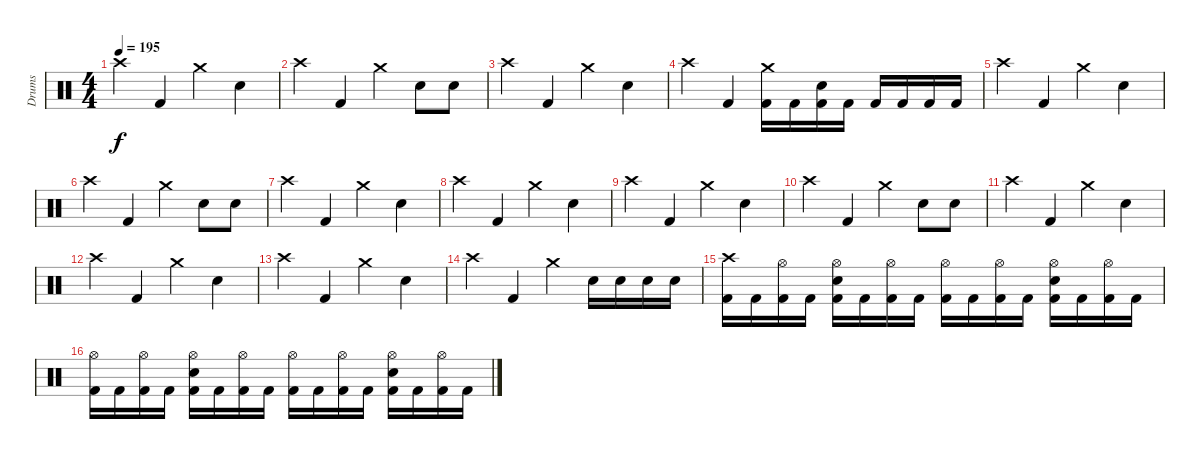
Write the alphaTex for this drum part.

\track ("Drums" "Drums") {instrument percussion}
\staff {score}
\articulation defaults
\ts (4 4)
\tempo 195
\clef neutral
\ks c "Crash high (hit)".4{dy f} "Kick (hit) 2".4 "Crash medium (hit)".4 "Snare (hit) 2".4
|
"Crash high (hit)".4 "Kick (hit) 2".4 "Crash medium (hit)".4 "Snare (hit) 2".8 "Snare (hit) 2".8 |
"Crash high (hit)".4 "Kick (hit) 2".4 "Crash medium (hit)".4 "Snare (hit) 2".4 |
"Crash high (hit)".4 "Kick (hit) 2".4 ("Crash medium (hit)" "Kick (hit) 2").16 "Kick (hit) 2".16 ("Snare (hit) 2" "Kick (hit) 2").16 "Kick (hit) 2".16 "Kick (hit) 2".16 "Kick (hit) 2".16 "Kick (hit) 2".16 "Kick (hit) 2".16 |
"Crash high (hit)".4 "Kick (hit) 2".4 "Crash medium (hit)".4 "Snare (hit) 2".4 |
"Crash high (hit)".4 "Kick (hit) 2".4 "Crash medium (hit)".4 "Snare (hit) 2".8 "Snare (hit) 2".8 |
"Crash high (hit)".4 "Kick (hit) 2".4 "Crash medium (hit)".4 "Snare (hit) 2".4 |
"Crash high (hit)".4 "Kick (hit) 2".4 "Crash medium (hit)".4 "Snare (hit) 2".4 |
"Crash high (hit)".4 "Kick (hit) 2".4 "Crash medium (hit)".4 "Snare (hit) 2".4 |
"Crash high (hit)".4 "Kick (hit) 2".4 "Crash medium (hit)".4 "Snare (hit) 2".8 "Snare (hit) 2".8 |
"Crash high (hit)".4 "Kick (hit) 2".4 "Crash medium (hit)".4 "Snare (hit) 2".4 |
"Crash high (hit)".4 "Kick (hit) 2".4 "Crash medium (hit)".4 "Snare (hit) 2".4 |
"Crash high (hit)".4 "Kick (hit) 2".4 "Crash medium (hit)".4 "Snare (hit) 2".4 |
"Crash high (hit)".4 "Kick (hit) 2".4 "Crash medium (hit)".4 "Snare (hit) 2".16 "Snare (hit) 2".16 "Snare (hit) 2".16 "Snare (hit) 2".16 |
("Crash high (hit)" "Kick (hit) 2").16 "Kick (hit) 2".16 ("Hi-Hat (open)" "Kick (hit) 2").16 "Kick (hit) 2".16 ("Hi-Hat (open)" "Snare (hit) 2" "Kick (hit) 2").16 "Kick (hit) 2".16 ("Hi-Hat (open)" "Kick (hit) 2").16 "Kick (hit) 2".16 ("Hi-Hat (open)" "Kick (hit) 2").16 "Kick (hit) 2".16 ("Hi-Hat (open)" "Kick (hit) 2").16 "Kick (hit) 2".16 ("Hi-Hat (open)" "Snare (hit) 2" "Kick (hit) 2").16 "Kick (hit) 2".16 ("Hi-Hat (open)" "Kick (hit) 2").16 "Kick (hit) 2".16 |
("Hi-Hat (open)" "Kick (hit) 2").16 "Kick (hit) 2".16 ("Hi-Hat (open)" "Kick (hit) 2").16 "Kick (hit) 2".16 ("Hi-Hat (open)" "Snare (hit) 2" "Kick (hit) 2").16 "Kick (hit) 2".16 ("Hi-Hat (open)" "Kick (hit) 2").16 "Kick (hit) 2".16 ("Hi-Hat (open)" "Kick (hit) 2").16 "Kick (hit) 2".16 ("Hi-Hat (open)" "Kick (hit) 2").16 "Kick (hit) 2".16 ("Hi-Hat (open)" "Snare (hit) 2" "Kick (hit) 2").16 "Kick (hit) 2".16 ("Hi-Hat (open)" "Kick (hit) 2").16 "Kick (hit) 2".16
